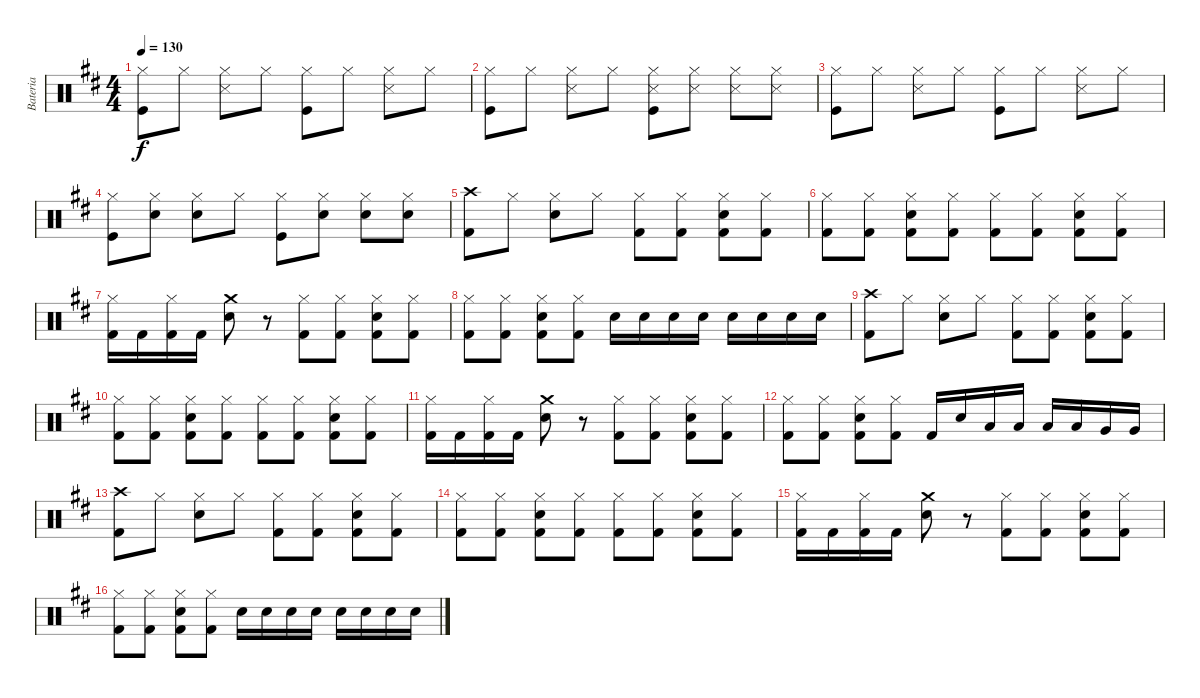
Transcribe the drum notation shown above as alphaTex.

\track ("Bateria" "Bateria") {instrument percussion}
\staff {score}
\articulation defaults
\ts (4 4)
\tempo 130
\clef neutral
\ks d
("Hi-Hat (closed)" "Kick (hit)").8{dy f} "Hi-Hat (closed)".8 ("Hi-Hat (closed)" "Metronome (hit)").8 "Hi-Hat (closed)".8 ("Hi-Hat (closed)" "Kick (hit)").8 "Hi-Hat (closed)".8 ("Hi-Hat (closed)" "Metronome (hit)").8 "Hi-Hat (closed)".8 |
("Hi-Hat (closed)" "Kick (hit)").8 "Hi-Hat (closed)".8 ("Hi-Hat (closed)" "Metronome (hit)").8 "Hi-Hat (closed)".8 ("Hi-Hat (closed)" "Metronome (hit)" "Kick (hit)").8 ("Hi-Hat (closed)" "Metronome (hit)").8 ("Hi-Hat (closed)" "Metronome (hit)").8 ("Hi-Hat (closed)" "Metronome (hit)").8 |
("Hi-Hat (closed)" "Kick (hit)").8 "Hi-Hat (closed)".8 ("Hi-Hat (closed)" "Metronome (hit)").8 "Hi-Hat (closed)".8 ("Hi-Hat (closed)" "Kick (hit)").8 "Hi-Hat (closed)".8 ("Hi-Hat (closed)" "Metronome (hit)").8 "Hi-Hat (closed)".8 |
("Hi-Hat (closed)" "Kick (hit)").8 ("Hi-Hat (closed)" "Snare (hit) 2").8 ("Hi-Hat (closed)" "Snare (hit) 2").8 "Hi-Hat (closed)".8 ("Hi-Hat (closed)" "Kick (hit)").8 ("Hi-Hat (closed)" "Snare (hit) 2").8 ("Hi-Hat (closed)" "Snare (hit) 2").8 ("Hi-Hat (closed)" "Snare (hit) 2").8 |
("Crash high (hit)" "Kick (hit) 2").8 "Hi-Hat (closed)".8 ("Hi-Hat (closed)" "Snare (hit) 2").8 "Hi-Hat (closed)".8 ("Hi-Hat (closed)" "Kick (hit) 2").8 ("Hi-Hat (closed)" "Kick (hit) 2").8 ("Hi-Hat (closed)" "Snare (hit) 2" "Kick (hit) 2").8 ("Hi-Hat (closed)" "Kick (hit) 2").8 |
("Hi-Hat (closed)" "Kick (hit) 2").8 ("Hi-Hat (closed)" "Kick (hit) 2").8 ("Hi-Hat (closed)" "Snare (hit) 2" "Kick (hit) 2").8 ("Hi-Hat (closed)" "Kick (hit) 2").8 ("Hi-Hat (closed)" "Kick (hit) 2").8 ("Hi-Hat (closed)" "Kick (hit) 2").8 ("Hi-Hat (closed)" "Snare (hit) 2" "Kick (hit) 2").8 ("Hi-Hat (closed)" "Kick (hit) 2").8 |
("Hi-Hat (closed)" "Kick (hit) 2").16 "Kick (hit) 2".16 ("Hi-Hat (closed)" "Kick (hit) 2").16 "Kick (hit) 2".16 ("Crash medium (hit)" "Snare (hit) 2").8 r.8 ("Hi-Hat (closed)" "Kick (hit) 2").8 ("Hi-Hat (closed)" "Kick (hit) 2").8 ("Hi-Hat (closed)" "Snare (hit) 2" "Kick (hit) 2").8 ("Hi-Hat (closed)" "Kick (hit) 2").8 |
("Hi-Hat (closed)" "Kick (hit) 2").8 ("Hi-Hat (closed)" "Kick (hit) 2").8 ("Hi-Hat (closed)" "Snare (hit) 2" "Kick (hit) 2").8 ("Hi-Hat (closed)" "Kick (hit) 2").8 "Snare (hit) 2".16 "Snare (hit) 2".16 "Snare (hit) 2".16 "Snare (hit) 2".16 "Snare (hit) 2".16 "Snare (hit) 2".16 "Snare (hit) 2".16 "Snare (hit) 2".16 |
("Crash high (hit)" "Kick (hit) 2").8 "Hi-Hat (closed)".8 ("Hi-Hat (closed)" "Snare (hit) 2").8 "Hi-Hat (closed)".8 ("Hi-Hat (closed)" "Kick (hit) 2").8 ("Hi-Hat (closed)" "Kick (hit) 2").8 ("Hi-Hat (closed)" "Snare (hit) 2" "Kick (hit) 2").8 ("Hi-Hat (closed)" "Kick (hit) 2").8 |
("Hi-Hat (closed)" "Kick (hit) 2").8 ("Hi-Hat (closed)" "Kick (hit) 2").8 ("Hi-Hat (closed)" "Snare (hit) 2" "Kick (hit) 2").8 ("Hi-Hat (closed)" "Kick (hit) 2").8 ("Hi-Hat (closed)" "Kick (hit) 2").8 ("Hi-Hat (closed)" "Kick (hit) 2").8 ("Hi-Hat (closed)" "Snare (hit) 2" "Kick (hit) 2").8 ("Hi-Hat (closed)" "Kick (hit) 2").8 |
("Hi-Hat (closed)" "Kick (hit) 2").16 "Kick (hit) 2".16 ("Hi-Hat (closed)" "Kick (hit) 2").16 "Kick (hit) 2".16 ("Crash medium (hit)" "Snare (hit) 2").8 r.8 ("Hi-Hat (closed)" "Kick (hit) 2").8 ("Hi-Hat (closed)" "Kick (hit) 2").8 ("Hi-Hat (closed)" "Snare (hit) 2" "Kick (hit) 2").8 ("Hi-Hat (closed)" "Kick (hit) 2").8 |
("Hi-Hat (closed)" "Kick (hit) 2").8 ("Hi-Hat (closed)" "Kick (hit) 2").8 ("Hi-Hat (closed)" "Snare (hit) 2" "Kick (hit) 2").8 ("Hi-Hat (closed)" "Kick (hit) 2").8 "Kick (hit) 2".16 "Snare (hit) 2".16 "Low Tom (hit)".16 "Low Tom (hit)".16 "Low Tom (hit)".16 "Low Tom (hit)".16 "Very Low Tom (hit)".16 "Very Low Tom (hit)".16 |
("Crash high (hit)" "Kick (hit) 2").8 "Hi-Hat (closed)".8 ("Hi-Hat (closed)" "Snare (hit) 2").8 "Hi-Hat (closed)".8 ("Hi-Hat (closed)" "Kick (hit) 2").8 ("Hi-Hat (closed)" "Kick (hit) 2").8 ("Hi-Hat (closed)" "Snare (hit) 2" "Kick (hit) 2").8 ("Hi-Hat (closed)" "Kick (hit) 2").8 |
("Hi-Hat (closed)" "Kick (hit) 2").8 ("Hi-Hat (closed)" "Kick (hit) 2").8 ("Hi-Hat (closed)" "Snare (hit) 2" "Kick (hit) 2").8 ("Hi-Hat (closed)" "Kick (hit) 2").8 ("Hi-Hat (closed)" "Kick (hit) 2").8 ("Hi-Hat (closed)" "Kick (hit) 2").8 ("Hi-Hat (closed)" "Snare (hit) 2" "Kick (hit) 2").8 ("Hi-Hat (closed)" "Kick (hit) 2").8 |
("Hi-Hat (closed)" "Kick (hit) 2").16 "Kick (hit) 2".16 ("Hi-Hat (closed)" "Kick (hit) 2").16 "Kick (hit) 2".16 ("Crash medium (hit)" "Snare (hit) 2").8 r.8 ("Hi-Hat (closed)" "Kick (hit) 2").8 ("Hi-Hat (closed)" "Kick (hit) 2").8 ("Hi-Hat (closed)" "Snare (hit) 2" "Kick (hit) 2").8 ("Hi-Hat (closed)" "Kick (hit) 2").8 |
("Hi-Hat (closed)" "Kick (hit) 2").8 ("Hi-Hat (closed)" "Kick (hit) 2").8 ("Hi-Hat (closed)" "Snare (hit) 2" "Kick (hit) 2").8 ("Hi-Hat (closed)" "Kick (hit) 2").8 "Snare (hit) 2".16 "Snare (hit) 2".16 "Snare (hit) 2".16 "Snare (hit) 2".16 "Snare (hit) 2".16 "Snare (hit) 2".16 "Snare (hit) 2".16 "Snare (hit) 2".16
